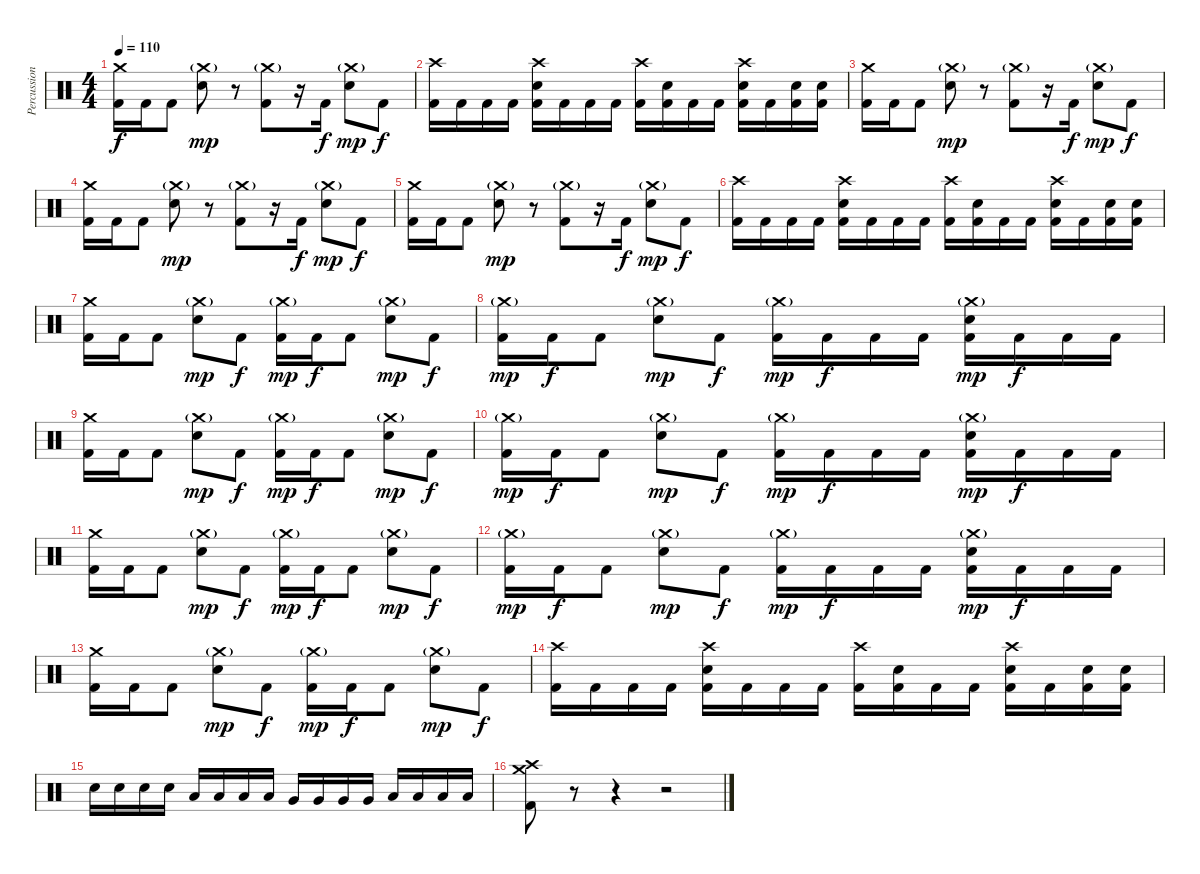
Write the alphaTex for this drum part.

\track ("Percussion" "Percussion") {instrument percussion}
\staff {score}
\articulation defaults
\ts (4 4)
\tempo 110
\clef neutral
\ks c
("Crash medium (hit)" "Kick (hit) 2").16{dy f} "Kick (hit) 2".16 "Kick (hit) 2".8 ("Crash medium (hit)"{g} "Electric Snare (hit)").8{dy mp} r.8 ("Crash medium (hit)"{g} "Kick (hit) 2").8 r.16 "Kick (hit) 2".16{dy f} ("Crash medium (hit)"{g} "Electric Snare (hit)").8{dy mp} "Kick (hit) 2".8{dy f} |
("Crash high (hit)" "Kick (hit) 2").16 "Kick (hit) 2".16 "Kick (hit) 2".16 "Kick (hit) 2".16 ("Crash high (hit)" "Electric Snare (hit)" "Kick (hit) 2").16 "Kick (hit) 2".16 "Kick (hit) 2".16 "Kick (hit) 2".16 ("Crash high (hit)" "Kick (hit) 2").16 ("Electric Snare (hit)" "Kick (hit) 2").16 "Kick (hit) 2".16 "Kick (hit) 2".16 ("Crash high (hit)" "Electric Snare (hit)" "Kick (hit) 2").16 "Kick (hit) 2".16 ("Electric Snare (hit)" "Kick (hit) 2").16 ("Electric Snare (hit)" "Kick (hit) 2").16 |
("Crash medium (hit)" "Kick (hit) 2").16 "Kick (hit) 2".16 "Kick (hit) 2".8 ("Crash medium (hit)"{g} "Electric Snare (hit)").8{dy mp} r.8 ("Crash medium (hit)"{g} "Kick (hit) 2").8 r.16 "Kick (hit) 2".16{dy f} ("Crash medium (hit)"{g} "Electric Snare (hit)").8{dy mp} "Kick (hit) 2".8{dy f} |
("Crash medium (hit)" "Kick (hit) 2").16 "Kick (hit) 2".16 "Kick (hit) 2".8 ("Crash medium (hit)"{g} "Electric Snare (hit)").8{dy mp} r.8 ("Crash medium (hit)"{g} "Kick (hit) 2").8 r.16 "Kick (hit) 2".16{dy f} ("Crash medium (hit)"{g} "Electric Snare (hit)").8{dy mp} "Kick (hit) 2".8{dy f} |
("Crash medium (hit)" "Kick (hit) 2").16 "Kick (hit) 2".16 "Kick (hit) 2".8 ("Crash medium (hit)"{g} "Electric Snare (hit)").8{dy mp} r.8 ("Crash medium (hit)"{g} "Kick (hit) 2").8 r.16 "Kick (hit) 2".16{dy f} ("Crash medium (hit)"{g} "Electric Snare (hit)").8{dy mp} "Kick (hit) 2".8{dy f} |
("Crash high (hit)" "Kick (hit) 2").16 "Kick (hit) 2".16 "Kick (hit) 2".16 "Kick (hit) 2".16 ("Crash high (hit)" "Electric Snare (hit)" "Kick (hit) 2").16 "Kick (hit) 2".16 "Kick (hit) 2".16 "Kick (hit) 2".16 ("Crash high (hit)" "Kick (hit) 2").16 ("Electric Snare (hit)" "Kick (hit) 2").16 "Kick (hit) 2".16 "Kick (hit) 2".16 ("Crash high (hit)" "Electric Snare (hit)" "Kick (hit) 2").16 "Kick (hit) 2".16 ("Electric Snare (hit)" "Kick (hit) 2").16 ("Electric Snare (hit)" "Kick (hit) 2").16 |
("Crash medium (hit)" "Kick (hit) 2").16 "Kick (hit) 2".16 "Kick (hit) 2".8 ("Crash medium (hit)"{g} "Electric Snare (hit)").8{dy mp} "Kick (hit) 2".8{dy f} ("Crash medium (hit)"{g} "Kick (hit) 2").16{dy mp} "Kick (hit) 2".16{dy f} "Kick (hit) 2".8 ("Crash medium (hit)"{g} "Electric Snare (hit)").8{dy mp} "Kick (hit) 2".8{dy f} |
("Crash medium (hit)"{g} "Kick (hit) 2").16{dy mp} "Kick (hit) 2".16{dy f} "Kick (hit) 2".8 ("Crash medium (hit)"{g} "Electric Snare (hit)").8{dy mp} "Kick (hit) 2".8{dy f} ("Crash medium (hit)"{g} "Kick (hit) 2").16{dy mp} "Kick (hit) 2".16{dy f} "Kick (hit) 2".16 "Kick (hit) 2".16 ("Crash medium (hit)"{g} "Electric Snare (hit)" "Kick (hit) 2").16{dy mp} "Kick (hit) 2".16{dy f} "Kick (hit) 2".16 "Kick (hit) 2".16 |
("Crash medium (hit)" "Kick (hit) 2").16 "Kick (hit) 2".16 "Kick (hit) 2".8 ("Crash medium (hit)"{g} "Electric Snare (hit)").8{dy mp} "Kick (hit) 2".8{dy f} ("Crash medium (hit)"{g} "Kick (hit) 2").16{dy mp} "Kick (hit) 2".16{dy f} "Kick (hit) 2".8 ("Crash medium (hit)"{g} "Electric Snare (hit)").8{dy mp} "Kick (hit) 2".8{dy f} |
("Crash medium (hit)"{g} "Kick (hit) 2").16{dy mp} "Kick (hit) 2".16{dy f} "Kick (hit) 2".8 ("Crash medium (hit)"{g} "Electric Snare (hit)").8{dy mp} "Kick (hit) 2".8{dy f} ("Crash medium (hit)"{g} "Kick (hit) 2").16{dy mp} "Kick (hit) 2".16{dy f} "Kick (hit) 2".16 "Kick (hit) 2".16 ("Crash medium (hit)"{g} "Electric Snare (hit)" "Kick (hit) 2").16{dy mp} "Kick (hit) 2".16{dy f} "Kick (hit) 2".16 "Kick (hit) 2".16 |
("Crash medium (hit)" "Kick (hit) 2").16 "Kick (hit) 2".16 "Kick (hit) 2".8 ("Crash medium (hit)"{g} "Electric Snare (hit)").8{dy mp} "Kick (hit) 2".8{dy f} ("Crash medium (hit)"{g} "Kick (hit) 2").16{dy mp} "Kick (hit) 2".16{dy f} "Kick (hit) 2".8 ("Crash medium (hit)"{g} "Electric Snare (hit)").8{dy mp} "Kick (hit) 2".8{dy f} |
("Crash medium (hit)"{g} "Kick (hit) 2").16{dy mp} "Kick (hit) 2".16{dy f} "Kick (hit) 2".8 ("Crash medium (hit)"{g} "Electric Snare (hit)").8{dy mp} "Kick (hit) 2".8{dy f} ("Crash medium (hit)"{g} "Kick (hit) 2").16{dy mp} "Kick (hit) 2".16{dy f} "Kick (hit) 2".16 "Kick (hit) 2".16 ("Crash medium (hit)"{g} "Electric Snare (hit)" "Kick (hit) 2").16{dy mp} "Kick (hit) 2".16{dy f} "Kick (hit) 2".16 "Kick (hit) 2".16 |
("Crash medium (hit)" "Kick (hit) 2").16 "Kick (hit) 2".16 "Kick (hit) 2".8 ("Crash medium (hit)"{g} "Electric Snare (hit)").8{dy mp} "Kick (hit) 2".8{dy f} ("Crash medium (hit)"{g} "Kick (hit) 2").16{dy mp} "Kick (hit) 2".16{dy f} "Kick (hit) 2".8 ("Crash medium (hit)"{g} "Electric Snare (hit)").8{dy mp} "Kick (hit) 2".8{dy f} |
("Crash high (hit)" "Kick (hit) 2").16 "Kick (hit) 2".16 "Kick (hit) 2".16 "Kick (hit) 2".16 ("Crash high (hit)" "Electric Snare (hit)" "Kick (hit) 2").16 "Kick (hit) 2".16 "Kick (hit) 2".16 "Kick (hit) 2".16 ("Crash high (hit)" "Kick (hit) 2").16 ("Electric Snare (hit)" "Kick (hit) 2").16 "Kick (hit) 2".16 "Kick (hit) 2".16 ("Crash high (hit)" "Electric Snare (hit)" "Kick (hit) 2").16 "Kick (hit) 2".16 ("Electric Snare (hit)" "Kick (hit) 2").16 ("Electric Snare (hit)" "Kick (hit) 2").16 |
"Electric Snare (hit)".16 "Electric Snare (hit)".16 "Electric Snare (hit)".16 "Electric Snare (hit)".16 "Low Tom (hit)".16 "Low Tom (hit)".16 "Low Tom (hit)".16 "Low Tom (hit)".16 "Very Low Tom (hit)".16 "Very Low Tom (hit)".16 "Very Low Tom (hit)".16 "Very Low Tom (hit)".16 "Low Floor Tom (hit)".16 "Low Floor Tom (hit)".16 "Low Floor Tom (hit)".16 "Low Floor Tom (hit)".16 |
("Crash high (hit)" "Crash medium (hit)" "Kick (hit) 2").8 r.8 r.4 r.2
